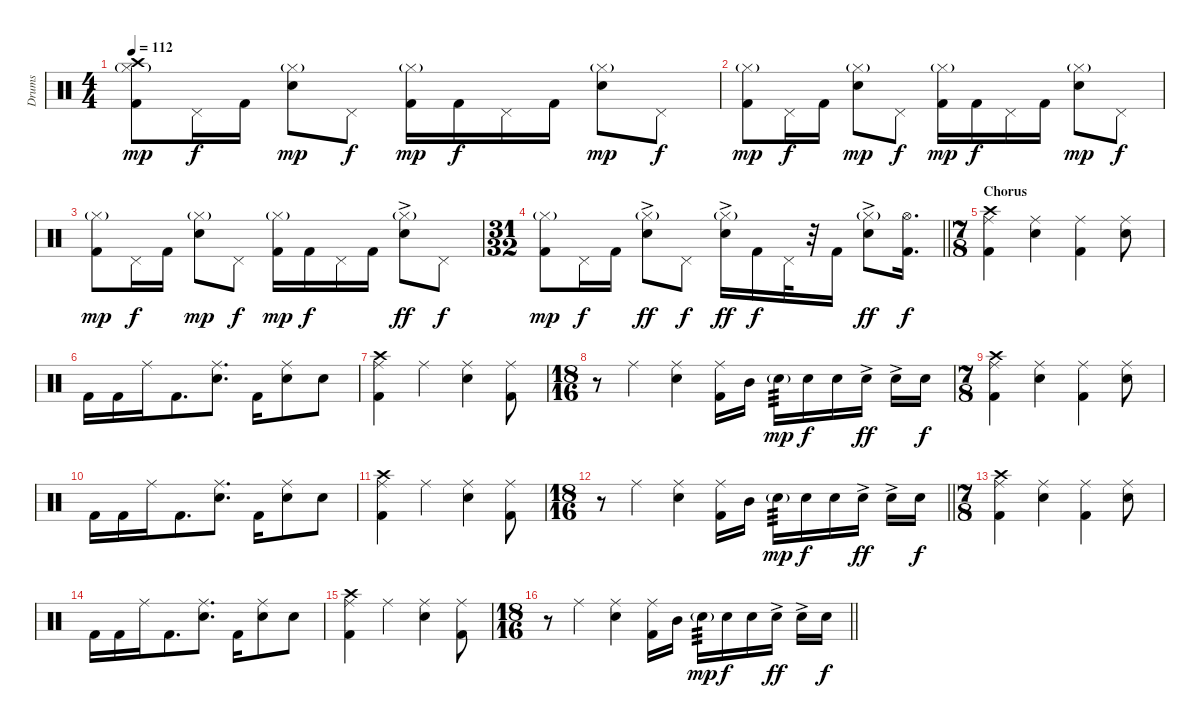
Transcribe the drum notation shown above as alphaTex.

\track ("Drums" "Drums") {instrument percussion}
\staff {score}
\articulation defaults
\ts (4 4)
\tempo 112
\clef neutral
\ks c
("Hi-Hat (closed)"{g} "Crash high (hit)" "Kick (hit) 2").8{dy mp} "Pedal Hi-Hat (hit)".16{dy f} "Kick (hit) 2".16 ("Hi-Hat (closed)"{g} "Snare (hit) 2").8{dy mp} "Pedal Hi-Hat (hit)".8{dy f} ("Hi-Hat (closed)"{g} "Kick (hit) 2").16{dy mp} "Kick (hit) 2".16{dy f} "Pedal Hi-Hat (hit)".16 "Kick (hit) 2".16 ("Hi-Hat (closed)"{g} "Snare (hit) 2").8{dy mp} "Pedal Hi-Hat (hit)".8{dy f} |
("Hi-Hat (closed)"{g} "Kick (hit) 2").8{dy mp} "Pedal Hi-Hat (hit)".16{dy f} "Kick (hit) 2".16 ("Hi-Hat (closed)"{g} "Snare (hit) 2").8{dy mp} "Pedal Hi-Hat (hit)".8{dy f} ("Hi-Hat (closed)"{g} "Kick (hit) 2").16{dy mp} "Kick (hit) 2".16{dy f} "Pedal Hi-Hat (hit)".16 "Kick (hit) 2".16 ("Hi-Hat (closed)"{g} "Snare (hit) 2").8{dy mp} "Pedal Hi-Hat (hit)".8{dy f} |
("Hi-Hat (closed)"{g} "Kick (hit) 2").8{dy mp} "Pedal Hi-Hat (hit)".16{dy f} "Kick (hit) 2".16 ("Hi-Hat (closed)"{g} "Snare (hit) 2").8{dy mp} "Pedal Hi-Hat (hit)".8{dy f} ("Hi-Hat (closed)"{g} "Kick (hit) 2").16{dy mp} "Kick (hit) 2".16{dy f} "Pedal Hi-Hat (hit)".16 "Kick (hit) 2".16 ("Hi-Hat (closed)"{g} "Snare (hit) 2"{ac}).8{dy ff} "Pedal Hi-Hat (hit)".8{dy f} |
\ts (31 32)
\barLineRight lightlight
("Hi-Hat (closed)"{g} "Kick (hit) 2").8{dy mp} "Pedal Hi-Hat (hit)".16{dy f} "Kick (hit) 2".16 ("Hi-Hat (closed)"{g} "Snare (hit) 2"{ac}).8{dy ff} "Pedal Hi-Hat (hit)".8{dy f} ("Hi-Hat (closed)"{g} "Snare (hit) 2"{ac}).16{dy ff} "Kick (hit) 2".16{dy f} "Pedal Hi-Hat (hit)".32 r.32 "Kick (hit) 2".16 ("Hi-Hat (closed)"{g} "Snare (hit) 2"{ac}).8{dy ff} ("Hi-Hat (open)" "Kick (hit) 2").16{d dy f} |
\ts (7 8)
\section ("" "Chorus")
("Ride (middle)" "Crash high (hit)" "Kick (hit) 2").4{volume 10} ("Ride (middle)" "Electric Snare (hit)").4 ("Ride (middle)" "Kick (hit) 2").4 ("Ride (middle)" "Electric Snare (hit)").8 |
"Kick (hit) 2".16 "Kick (hit) 2".16 "Ride (middle)".16 "Kick (hit) 2".8{d} ("Ride (middle)" "Electric Snare (hit)").8{d} "Kick (hit) 2".16 ("Ride (middle)" "Electric Snare (hit)").8 "Electric Snare (hit)".8 |
("Ride (middle)" "Crash high (hit)" "Kick (hit) 2").4 "Ride (middle)".4 ("Ride (middle)" "Electric Snare (hit)").4 ("Ride (middle)" "Kick (hit) 2").8 |
\ts (18 16)
r.8 "Ride (middle)".4 ("Ride (middle)" "Electric Snare (hit)").4 ("Ride (middle)" "Kick (hit) 2").16 "Mid Tom (hit)".16 "Electric Snare (hit)"{g}.16{tp 3 dy mp} "Electric Snare (hit)".16{dy f} "Electric Snare (hit)".16 "Electric Snare (hit)"{ac}.16{dy ff} "Electric Snare (hit)"{ac}.16 "Electric Snare (hit)".16{dy f} |
\ts (7 8)
("Ride (middle)" "Crash high (hit)" "Kick (hit) 2").4 ("Ride (middle)" "Electric Snare (hit)").4 ("Ride (middle)" "Kick (hit) 2").4 ("Ride (middle)" "Electric Snare (hit)").8 |
"Kick (hit) 2".16 "Kick (hit) 2".16 "Ride (middle)".16 "Kick (hit) 2".8{d} ("Ride (middle)" "Electric Snare (hit)").8{d} "Kick (hit) 2".16 ("Ride (middle)" "Electric Snare (hit)").8 "Electric Snare (hit)".8 |
("Ride (middle)" "Crash high (hit)" "Kick (hit) 2").4 "Ride (middle)".4 ("Ride (middle)" "Electric Snare (hit)").4 ("Ride (middle)" "Kick (hit) 2").8 |
\ts (18 16)
\barLineRight lightlight
r.8 "Ride (middle)".4 ("Ride (middle)" "Electric Snare (hit)").4 ("Ride (middle)" "Kick (hit) 2").16 "Mid Tom (hit)".16 "Electric Snare (hit)"{g}.16{tp 3 dy mp} "Electric Snare (hit)".16{dy f} "Electric Snare (hit)".16 "Electric Snare (hit)"{ac}.16{dy ff} "Electric Snare (hit)"{ac}.16 "Electric Snare (hit)".16{dy f} |
\ts (7 8)
("Ride (middle)" "Crash high (hit)" "Kick (hit) 2").4 ("Ride (middle)" "Electric Snare (hit)").4 ("Ride (middle)" "Kick (hit) 2").4 ("Ride (middle)" "Electric Snare (hit)").8 |
"Kick (hit) 2".16 "Kick (hit) 2".16 "Ride (middle)".16 "Kick (hit) 2".8{d} ("Ride (middle)" "Electric Snare (hit)").8{d} "Kick (hit) 2".16 ("Ride (middle)" "Electric Snare (hit)").8 "Electric Snare (hit)".8 |
("Ride (middle)" "Crash high (hit)" "Kick (hit) 2").4 "Ride (middle)".4 ("Ride (middle)" "Electric Snare (hit)").4 ("Ride (middle)" "Kick (hit) 2").8 |
\ts (18 16)
\barLineRight lightlight
r.8 "Ride (middle)".4 ("Ride (middle)" "Electric Snare (hit)").4 ("Ride (middle)" "Kick (hit) 2").16 "Mid Tom (hit)".16 "Electric Snare (hit)"{g}.16{tp 3 dy mp} "Electric Snare (hit)".16{dy f} "Electric Snare (hit)".16 "Electric Snare (hit)"{ac}.16{dy ff} "Electric Snare (hit)"{ac}.16 "Electric Snare (hit)".16{dy f}
